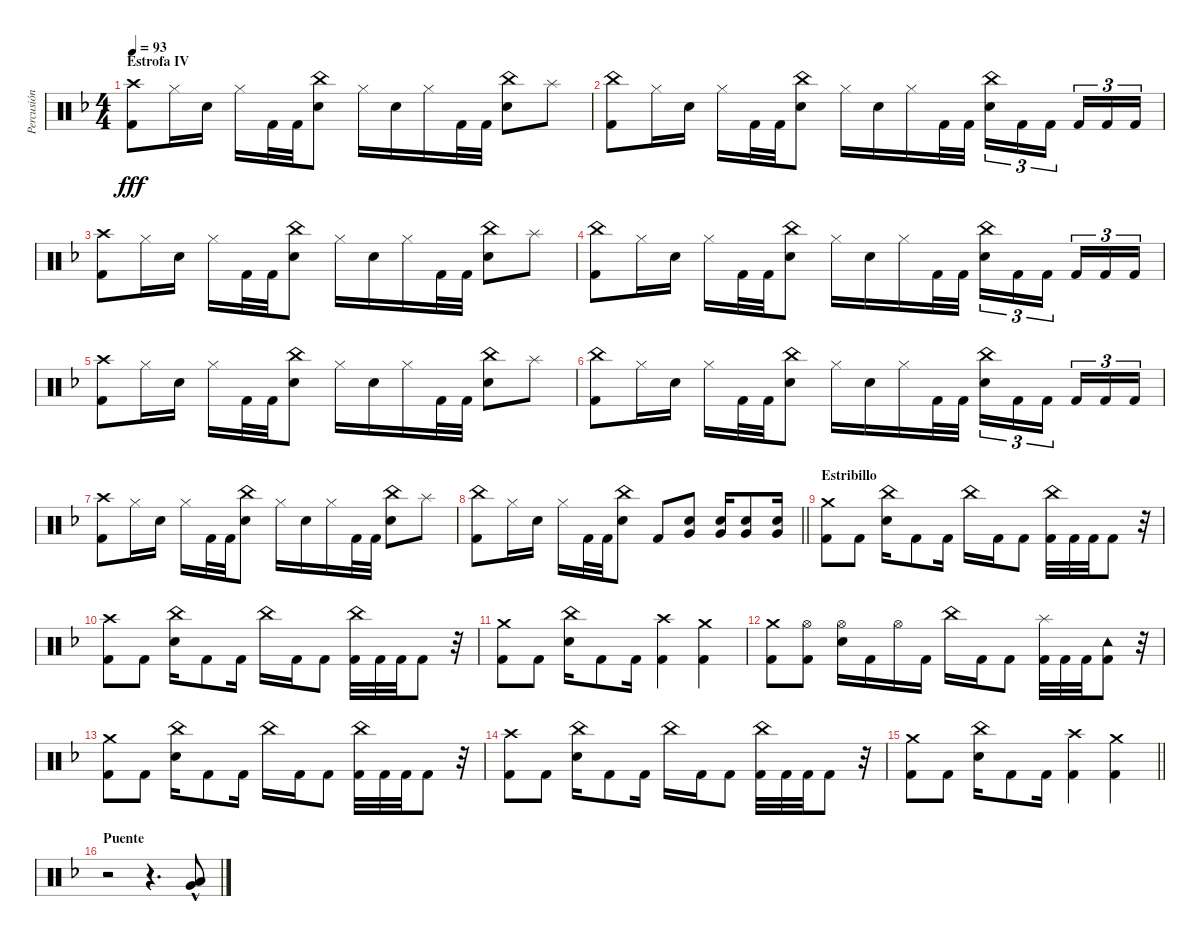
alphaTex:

\track ("Percusión" "Percusión") {instrument percussion}
\staff {score}
\articulation defaults
\ts (4 4)
\section ("" "Estrofa IV")
\tempo 93
\clef neutral
\ks dminor
("Crash high (hit)" "Kick (hit) 2").8{dy fff} "Hi-Hat (closed)".16 "Snare (hit) 2".16 "Hi-Hat (closed)".16 "Kick (hit) 2".32 "Kick (hit) 2".32 ("China (hit)" "Snare (hit) 2").8 "Hi-Hat (closed)".16 "Snare (hit) 2".16 "Hi-Hat (closed)".16 "Kick (hit) 2".32 "Kick (hit) 2".32 ("China (hit)" "Snare (hit) 2").8 "Splash (hit)".8 |
("China (hit)" "Kick (hit) 2").8 "Hi-Hat (closed)".16 "Snare (hit) 2".16 "Hi-Hat (closed)".16 "Kick (hit) 2".32 "Kick (hit) 2".32 ("China (hit)" "Snare (hit) 2").8 "Hi-Hat (closed)".16 "Snare (hit) 2".16 "Hi-Hat (closed)".16 "Kick (hit) 2".32 "Kick (hit) 2".32 ("China (hit)" "Snare (hit) 2").16{tu (3 2)} "Kick (hit) 2".16{tu (3 2)} "Kick (hit) 2".16{tu (3 2) beam splitsecondary} "Kick (hit) 2".16{tu (3 2)} "Kick (hit) 2".16{tu (3 2)} "Kick (hit) 2".16{tu (3 2)} |
("Crash high (hit)" "Kick (hit) 2").8 "Hi-Hat (closed)".16 "Snare (hit) 2".16 "Hi-Hat (closed)".16 "Kick (hit) 2".32 "Kick (hit) 2".32 ("China (hit)" "Snare (hit) 2").8 "Hi-Hat (closed)".16 "Snare (hit) 2".16 "Hi-Hat (closed)".16 "Kick (hit) 2".32 "Kick (hit) 2".32 ("China (hit)" "Snare (hit) 2").8 "Splash (hit)".8 |
("China (hit)" "Kick (hit) 2").8 "Hi-Hat (closed)".16 "Snare (hit) 2".16 "Hi-Hat (closed)".16 "Kick (hit) 2".32 "Kick (hit) 2".32 ("China (hit)" "Snare (hit) 2").8 "Hi-Hat (closed)".16 "Snare (hit) 2".16 "Hi-Hat (closed)".16 "Kick (hit) 2".32 "Kick (hit) 2".32 ("China (hit)" "Snare (hit) 2").16{tu (3 2)} "Kick (hit) 2".16{tu (3 2)} "Kick (hit) 2".16{tu (3 2) beam splitsecondary} "Kick (hit) 2".16{tu (3 2)} "Kick (hit) 2".16{tu (3 2)} "Kick (hit) 2".16{tu (3 2)} |
("Crash high (hit)" "Kick (hit) 2").8 "Hi-Hat (closed)".16 "Snare (hit) 2".16 "Hi-Hat (closed)".16 "Kick (hit) 2".32 "Kick (hit) 2".32 ("China (hit)" "Snare (hit) 2").8 "Hi-Hat (closed)".16 "Snare (hit) 2".16 "Hi-Hat (closed)".16 "Kick (hit) 2".32 "Kick (hit) 2".32 ("China (hit)" "Snare (hit) 2").8 "Splash (hit)".8 |
("China (hit)" "Kick (hit) 2").8 "Hi-Hat (closed)".16 "Snare (hit) 2".16 "Hi-Hat (closed)".16 "Kick (hit) 2".32 "Kick (hit) 2".32 ("China (hit)" "Snare (hit) 2").8 "Hi-Hat (closed)".16 "Snare (hit) 2".16 "Hi-Hat (closed)".16 "Kick (hit) 2".32 "Kick (hit) 2".32 ("China (hit)" "Snare (hit) 2").16{tu (3 2)} "Kick (hit) 2".16{tu (3 2)} "Kick (hit) 2".16{tu (3 2) beam splitsecondary} "Kick (hit) 2".16{tu (3 2)} "Kick (hit) 2".16{tu (3 2)} "Kick (hit) 2".16{tu (3 2)} |
("Crash high (hit)" "Kick (hit) 2").8 "Hi-Hat (closed)".16 "Snare (hit) 2".16 "Hi-Hat (closed)".16 "Kick (hit) 2".32 "Kick (hit) 2".32 ("China (hit)" "Snare (hit) 2").8 "Hi-Hat (closed)".16 "Snare (hit) 2".16 "Hi-Hat (closed)".16 "Kick (hit) 2".32 "Kick (hit) 2".32 ("China (hit)" "Snare (hit) 2").8 "Splash (hit)".8 |
\barLineRight lightlight
("China (hit)" "Kick (hit) 2").8 "Hi-Hat (closed)".16 "Snare (hit) 2".16 "Hi-Hat (closed)".16 "Kick (hit) 2".32 "Kick (hit) 2".32 ("China (hit)" "Snare (hit) 2").8 "Kick (hit) 2".8 ("Very Low Tom (hit)" "Snare (hit) 2").8 ("Very Low Tom (hit)" "Snare (hit) 2").16 ("Very Low Tom (hit)" "Snare (hit) 2").8 ("Very Low Tom (hit)" "Snare (hit) 2").16 |
\section ("" "Estribillo")
("Crash medium (hit)" "Kick (hit) 2").8 "Kick (hit) 2".8 ("China (hit)" "Snare (hit) 2").16 "Kick (hit) 2".8 "Kick (hit) 2".16 "China (hit)".16 "Kick (hit) 2".16 "Kick (hit) 2".8 ("China (hit)" "Kick (hit) 2").32 "Kick (hit) 2".32 "Kick (hit) 2".32 "Kick (hit) 2".8 r.32 |
("Crash high (hit)" "Kick (hit) 2").8 "Kick (hit) 2".8 ("China (hit)" "Snare (hit) 2").16 "Kick (hit) 2".8 "Kick (hit) 2".16 "China (hit)".16 "Kick (hit) 2".16 "Kick (hit) 2".8 ("China (hit)" "Kick (hit) 2").32 "Kick (hit) 2".32 "Kick (hit) 2".32 "Kick (hit) 2".8 r.32 |
("Crash medium (hit)" "Kick (hit) 2").8 "Kick (hit) 2".8 ("China (hit)" "Snare (hit) 2").16 "Kick (hit) 2".8 "Kick (hit) 2".16 ("Crash high (hit)" "Kick (hit) 2").4 ("Crash medium (hit)" "Kick (hit) 2").4 |
("Crash medium (hit)" "Kick (hit) 2").8 ("Hi-Hat (open)" "Kick (hit) 2").8 ("Hi-Hat (open)" "Snare (hit) 2").16 "Kick (hit) 2".16 "Hi-Hat (open)".16 "Kick (hit) 2".16 "China (hit)".16 "Kick (hit) 2".16 "Kick (hit) 2".8 ("Splash (hit)" "Kick (hit) 2").32 "Kick (hit) 2".32 "Kick (hit) 2".32 ("Tambourine (hit)" "Kick (hit) 2").8 r.32 |
("Crash medium (hit)" "Kick (hit) 2").8 "Kick (hit) 2".8 ("China (hit)" "Snare (hit) 2").16 "Kick (hit) 2".8 "Kick (hit) 2".16 "China (hit)".16 "Kick (hit) 2".16 "Kick (hit) 2".8 ("China (hit)" "Kick (hit) 2").32 "Kick (hit) 2".32 "Kick (hit) 2".32 "Kick (hit) 2".8 r.32 |
("Crash high (hit)" "Kick (hit) 2").8 "Kick (hit) 2".8 ("China (hit)" "Snare (hit) 2").16 "Kick (hit) 2".8 "Kick (hit) 2".16 "China (hit)".16 "Kick (hit) 2".16 "Kick (hit) 2".8 ("China (hit)" "Kick (hit) 2").32 "Kick (hit) 2".32 "Kick (hit) 2".32 "Kick (hit) 2".8 r.32 |
\barLineRight lightlight
("Crash medium (hit)" "Kick (hit) 2").8 "Kick (hit) 2".8 ("China (hit)" "Snare (hit) 2").16 "Kick (hit) 2".8 "Kick (hit) 2".16 ("Crash high (hit)" "Kick (hit) 2").4 ("Crash medium (hit)" "Kick (hit) 2").4 |
\section ("" "Puente")
r.2 r.4{d} ("Low Floor Tom (hit)"{hac} "Very Low Tom (hit)"{hac}).8
